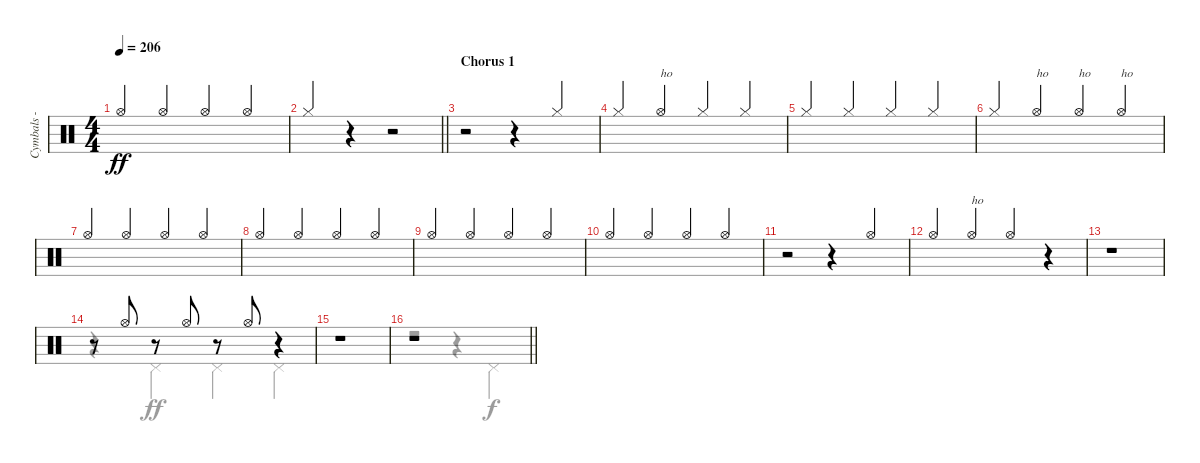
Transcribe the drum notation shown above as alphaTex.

\track ("Cymbals - hi-hat" "Cymbals - ") {instrument percussion}
\staff {score}
\articulation defaults
\voice
\ts (4 4)
\tempo 206
\clef neutral
\ks c "Hi-Hat (open)".4{dy ff beam Up} "Hi-Hat (open)".4{beam Up} "Hi-Hat (open)".4{beam Up} "Hi-Hat (open)".4{beam Up}
|
\barLineRight lightlight "Hi-Hat (closed)".4{beam Up}
r.4 r.2 |
\section ("" "Chorus 1")
r.2 r.4 "Hi-Hat (closed)".4{beam Up} |
"Hi-Hat (closed)".4{beam Up} "Hi-Hat (open)".4{txt "ho" beam Up} "Hi-Hat (closed)".4{beam Up} "Hi-Hat (closed)".4{beam Up} |
"Hi-Hat (closed)".4{beam Up} "Hi-Hat (closed)".4{beam Up} "Hi-Hat (closed)".4{beam Up} "Hi-Hat (closed)".4{beam Up} |
"Hi-Hat (closed)".4{beam Up} "Hi-Hat (open)".4{txt "ho" beam Up} "Hi-Hat (open)".4{txt "ho" beam Up} "Hi-Hat (open)".4{txt "ho" beam Up} |
"Hi-Hat (open)".4{beam Up} "Hi-Hat (open)".4{beam Up} "Hi-Hat (open)".4{beam Up} "Hi-Hat (open)".4{beam Up} |
"Hi-Hat (open)".4{beam Up} "Hi-Hat (open)".4{beam Up} "Hi-Hat (open)".4{beam Up} "Hi-Hat (open)".4{beam Up} |
"Hi-Hat (open)".4{beam Up} "Hi-Hat (open)".4{beam Up} "Hi-Hat (open)".4{beam Up} "Hi-Hat (open)".4{beam Up} |
"Hi-Hat (open)".4{beam Up} "Hi-Hat (open)".4{beam Up} "Hi-Hat (open)".4{beam Up} "Hi-Hat (open)".4{beam Up} |
r.2 r.4 "Hi-Hat (open)".4{beam Up} |
"Hi-Hat (open)".4{beam Up} "Hi-Hat (open)".4{txt "ho" beam Up} "Hi-Hat (open)".4{beam Up} r.4 |
r.1 |
r.8 "Hi-Hat (open)".8 r.8 "Hi-Hat (open)".8 r.8 "Hi-Hat (open)".8 r.4 |
r.1 |
\barLineRight lightlight
r.1
\voice
\clef neutral
\ottava regular
\simile none
\ks c
|
\barLineRight lightlight
|
|
|
|
|
|
|
|
|
|
|
|
r.4 "Pedal Hi-Hat (hit)".4 "Pedal Hi-Hat (hit)".4 "Pedal Hi-Hat (hit)".4 |
|
\barLineRight lightlight
r.2 r.4 "Pedal Hi-Hat (hit)".4{dy f}
